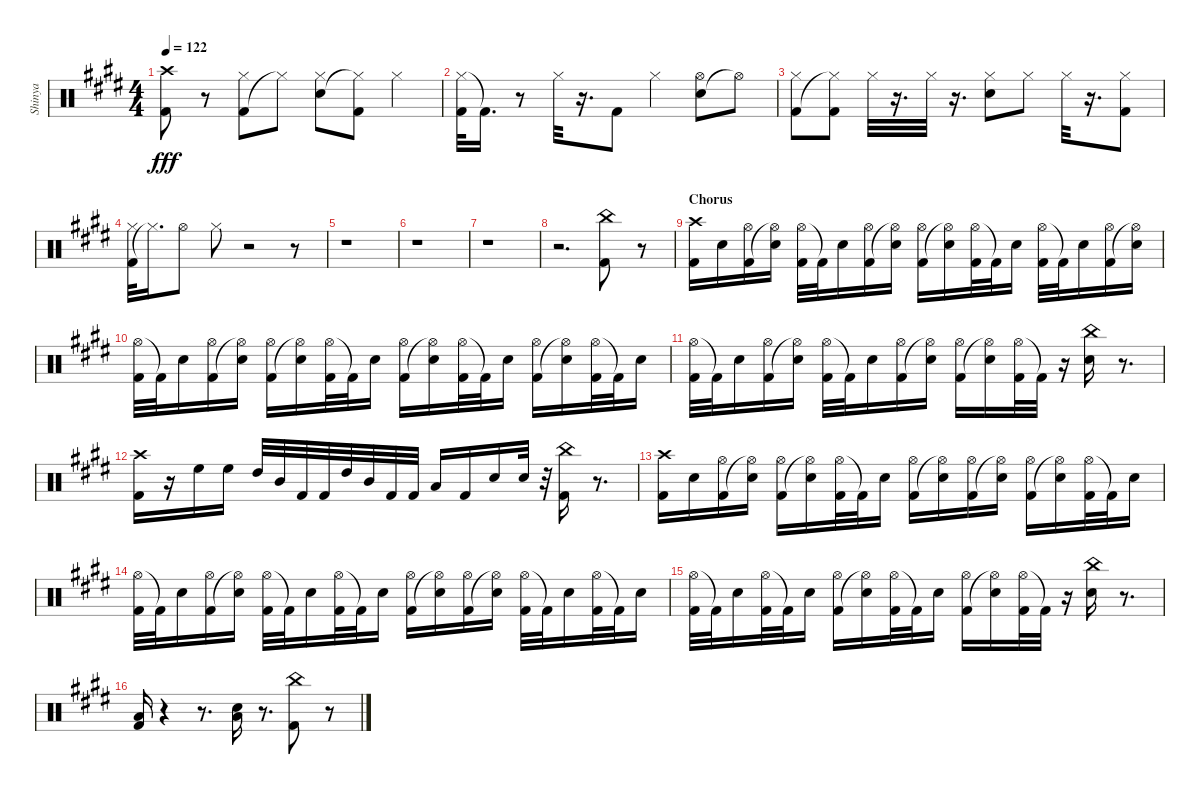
\track ("Shinya" "Shinya") {instrument percussion}
\staff {score}
\articulation defaults
\ts (4 4)
\tempo 122
\clef neutral
\ks c#minor
("Kick (hit) 2" "Crash high (hit)").8{dy fff} r.8 ("Kick (hit) 2" "Hi-Hat (closed)").8 "Hi-Hat (closed)"{t}.8 ("Snare (hit) 2" "Hi-Hat (closed)").8 ("Hi-Hat (closed)"{t} "Kick (hit) 2").8 "Hi-Hat (closed)".4 |
("Hi-Hat (closed)" "Kick (hit) 2").32 "Kick (hit) 2"{t}.16{d} r.8 "Hi-Hat (closed)".32 r.16{d} "Kick (hit) 2".8 "Hi-Hat (closed)".4 ("Snare (hit) 2" "Hi-Hat (open)").8 "Hi-Hat (open)"{t}.8 |
("Kick (hit) 2" "Hi-Hat (closed)").8 ("Hi-Hat (closed)"{t} "Kick (hit) 2").8 "Hi-Hat (closed)".32 r.16{d} "Hi-Hat (closed)".32 r.16{d} ("Snare (hit) 2" "Hi-Hat (closed)").8 "Hi-Hat (closed)".8 "Hi-Hat (closed)".32 r.16{d} ("Kick (hit) 2" "Hi-Hat (closed)").8 |
("Kick (hit) 2" "Hi-Hat (closed)").32 "Hi-Hat (closed)"{t}.16{d} "Hi-Hat (open)".8 "Hi-Hat (closed)".8 r.2 r.8 |
r.1 |
r.1 |
r.1 |
r.2{d} ("Kick (hit) 2" "China (hit)").8 r.8 |
\section ("" "Chorus")
("Kick (hit) 2" "Crash high (hit)").16 "Snare (hit) 2".16 ("Kick (hit) 2" "Hi-Hat (open)").16 ("Hi-Hat (open)"{t} "Snare (hit) 2").16 ("Hi-Hat (open)" "Kick (hit) 2").32 "Kick (hit) 2"{t}.32 "Snare (hit) 2".16 ("Kick (hit) 2" "Hi-Hat (open)").16 ("Hi-Hat (open)"{t} "Snare (hit) 2").16 ("Kick (hit) 2" "Hi-Hat (open)").16 ("Hi-Hat (open)"{t} "Snare (hit) 2").16 ("Hi-Hat (open)" "Kick (hit) 2").32 "Kick (hit) 2"{t}.32 "Snare (hit) 2".16 ("Hi-Hat (open)" "Kick (hit) 2").32 "Kick (hit) 2"{t}.32 "Snare (hit) 2".16 ("Kick (hit) 2" "Hi-Hat (open)").16 ("Hi-Hat (open)"{t} "Snare (hit) 2").16 |
("Hi-Hat (open)" "Kick (hit) 2").32 "Kick (hit) 2"{t}.32 "Snare (hit) 2".16 ("Kick (hit) 2" "Hi-Hat (open)").16 ("Hi-Hat (open)"{t} "Snare (hit) 2").16 ("Kick (hit) 2" "Hi-Hat (open)").16 ("Hi-Hat (open)"{t} "Snare (hit) 2").16 ("Hi-Hat (open)" "Kick (hit) 2").32 "Kick (hit) 2"{t}.32 "Snare (hit) 2".16 ("Kick (hit) 2" "Hi-Hat (open)").16 ("Hi-Hat (open)"{t} "Snare (hit) 2").16 ("Hi-Hat (open)" "Kick (hit) 2").32 "Kick (hit) 2"{t}.32 "Snare (hit) 2".16 ("Kick (hit) 2" "Hi-Hat (open)").16 ("Hi-Hat (open)"{t} "Snare (hit) 2").16 ("Hi-Hat (open)" "Kick (hit) 2").32 "Kick (hit) 2"{t}.32 "Snare (hit) 2".16 |
("Hi-Hat (open)" "Kick (hit) 2").32 "Kick (hit) 2"{t}.32 "Snare (hit) 2".16 ("Kick (hit) 2" "Hi-Hat (open)").16 ("Hi-Hat (open)"{t} "Snare (hit) 2").16 ("Hi-Hat (open)" "Kick (hit) 2").32 "Kick (hit) 2"{t}.32 "Snare (hit) 2".16 ("Kick (hit) 2" "Hi-Hat (open)").16 ("Hi-Hat (open)"{t} "Snare (hit) 2").16 ("Kick (hit) 2" "Hi-Hat (open)").16 ("Hi-Hat (open)"{t} "Snare (hit) 2").16 ("Hi-Hat (open)" "Kick (hit) 2").32 "Kick (hit) 2"{t}.32 r.16 ("Snare (hit) 2" "China (hit)").16 r.8{d} |
("Kick (hit) 2" "Crash high (hit)").16 r.16 "High Floor Tom (hit)".16 "High Floor Tom (hit)".16 "High Tom (hit)".32 "Mid Tom (hit)".32 "Kick (hit) 2".32 "Kick (hit) 2".32 "High Tom (hit)".32 "Mid Tom (hit)".32 "Kick (hit) 2".32 "Kick (hit) 2".32 "Low Tom (hit)".16 "Kick (hit) 2".16 "Snare (hit) 2".16 "Snare (hit) 2".32 r.32 ("Kick (hit) 2" "China (hit)").16 r.8{d} |
("Kick (hit) 2" "Crash high (hit)").16 "Snare (hit) 2".16 ("Kick (hit) 2" "Hi-Hat (open)").16 ("Hi-Hat (open)"{t} "Snare (hit) 2").16 ("Kick (hit) 2" "Hi-Hat (open)").16 ("Hi-Hat (open)"{t} "Snare (hit) 2").16 ("Hi-Hat (open)" "Kick (hit) 2").32 "Kick (hit) 2"{t}.32 "Snare (hit) 2".16 ("Kick (hit) 2" "Hi-Hat (open)").16 ("Hi-Hat (open)"{t} "Snare (hit) 2").16 ("Kick (hit) 2" "Hi-Hat (open)").16 ("Hi-Hat (open)"{t} "Snare (hit) 2").16 ("Kick (hit) 2" "Hi-Hat (open)").16 ("Hi-Hat (open)"{t} "Snare (hit) 2").16 ("Hi-Hat (open)" "Kick (hit) 2").32 "Kick (hit) 2"{t}.32 "Snare (hit) 2".16 |
("Hi-Hat (open)" "Kick (hit) 2").32 "Kick (hit) 2"{t}.32 "Snare (hit) 2".16 ("Kick (hit) 2" "Hi-Hat (open)").16 ("Hi-Hat (open)"{t} "Snare (hit) 2").16 ("Hi-Hat (open)" "Kick (hit) 2").32 "Kick (hit) 2"{t}.32 "Snare (hit) 2".16 ("Hi-Hat (open)" "Kick (hit) 2").32 "Kick (hit) 2"{t}.32 "Snare (hit) 2".16 ("Kick (hit) 2" "Hi-Hat (open)").16 ("Hi-Hat (open)"{t} "Snare (hit) 2").16 ("Kick (hit) 2" "Hi-Hat (open)").16 ("Hi-Hat (open)"{t} "Snare (hit) 2").16 ("Hi-Hat (open)" "Kick (hit) 2").32 "Kick (hit) 2"{t}.32 "Snare (hit) 2".16 ("Hi-Hat (open)" "Kick (hit) 2").32 "Kick (hit) 2"{t}.32 "Snare (hit) 2".16 |
("Hi-Hat (open)" "Kick (hit) 2").32 "Kick (hit) 2"{t}.32 "Snare (hit) 2".16 ("Hi-Hat (open)" "Kick (hit) 2").32 "Kick (hit) 2"{t}.32 "Snare (hit) 2".16 ("Kick (hit) 2" "Hi-Hat (open)").16 ("Hi-Hat (open)"{t} "Snare (hit) 2").16 ("Hi-Hat (open)" "Kick (hit) 2").32 "Kick (hit) 2"{t}.32 "Snare (hit) 2".16 ("Kick (hit) 2" "Hi-Hat (open)").16 ("Hi-Hat (open)"{t} "Snare (hit) 2").16 ("Hi-Hat (open)" "Kick (hit) 2").32 "Kick (hit) 2"{t}.32 r.16 ("Snare (hit) 2" "China (hit)").16 r.8{d} |
("Kick (hit) 2" "Low Tom (hit)").16 r.4 r.8{d} ("Snare (hit) 2" "Low Tom (hit)").16 r.8{d} ("Kick (hit) 2" "China (hit)").8 r.8
